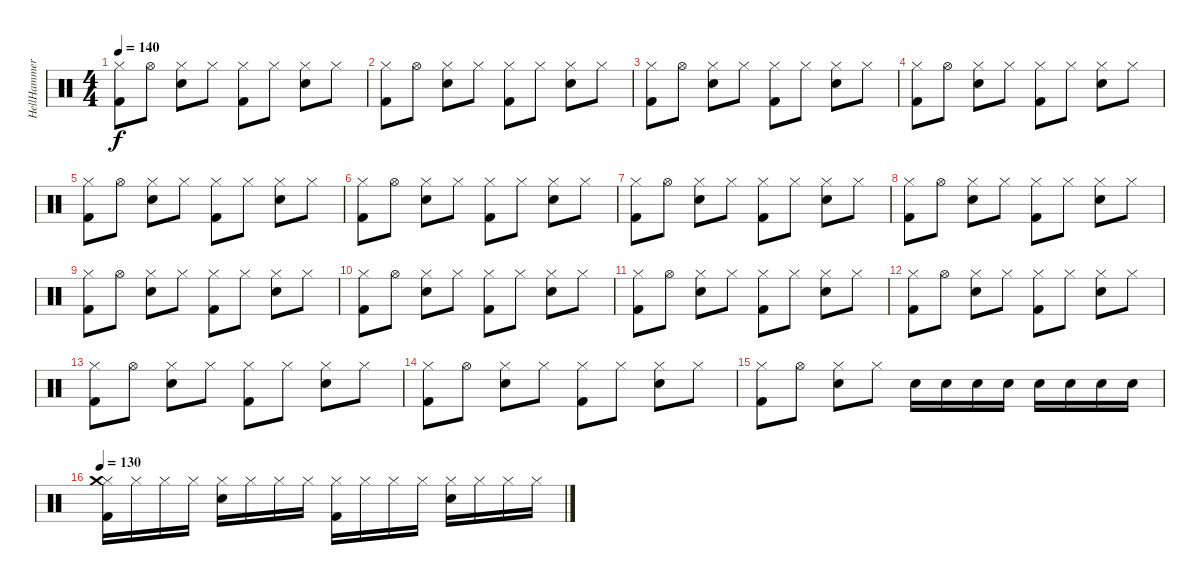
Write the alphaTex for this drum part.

\track ("HellHammer - Drums" "HellHammer") {instrument percussion}
\staff {score}
\articulation defaults
\ts (4 4)
\tempo 140
\clef neutral
\ks c
("Hi-Hat (closed)" "Kick (hit) 2").8{dy f} "Hi-Hat (open)".8 ("Hi-Hat (closed)" "Snare (hit) 2").8 "Hi-Hat (closed)".8 ("Hi-Hat (closed)" "Kick (hit) 2").8 "Hi-Hat (closed)".8 ("Hi-Hat (closed)" "Snare (hit) 2").8 "Hi-Hat (closed)".8 |
("Hi-Hat (closed)" "Kick (hit) 2").8 "Hi-Hat (open)".8 ("Hi-Hat (closed)" "Snare (hit) 2").8 "Hi-Hat (closed)".8 ("Hi-Hat (closed)" "Kick (hit) 2").8 "Hi-Hat (closed)".8 ("Hi-Hat (closed)" "Snare (hit) 2").8 "Hi-Hat (closed)".8 |
("Hi-Hat (closed)" "Kick (hit) 2").8 "Hi-Hat (open)".8 ("Hi-Hat (closed)" "Snare (hit) 2").8 "Hi-Hat (closed)".8 ("Hi-Hat (closed)" "Kick (hit) 2").8 "Hi-Hat (closed)".8 ("Hi-Hat (closed)" "Snare (hit) 2").8 "Hi-Hat (closed)".8 |
("Hi-Hat (closed)" "Kick (hit) 2").8 "Hi-Hat (open)".8 ("Hi-Hat (closed)" "Snare (hit) 2").8 "Hi-Hat (closed)".8 ("Hi-Hat (closed)" "Kick (hit) 2").8 "Hi-Hat (closed)".8 ("Hi-Hat (closed)" "Snare (hit) 2").8 "Hi-Hat (closed)".8 |
("Hi-Hat (closed)" "Kick (hit) 2").8 "Hi-Hat (open)".8 ("Hi-Hat (closed)" "Snare (hit) 2").8 "Hi-Hat (closed)".8 ("Hi-Hat (closed)" "Kick (hit) 2").8 "Hi-Hat (closed)".8 ("Hi-Hat (closed)" "Snare (hit) 2").8 "Hi-Hat (closed)".8 |
("Hi-Hat (closed)" "Kick (hit) 2").8 "Hi-Hat (open)".8 ("Hi-Hat (closed)" "Snare (hit) 2").8 "Hi-Hat (closed)".8 ("Hi-Hat (closed)" "Kick (hit) 2").8 "Hi-Hat (closed)".8 ("Hi-Hat (closed)" "Snare (hit) 2").8 "Hi-Hat (closed)".8 |
("Hi-Hat (closed)" "Kick (hit) 2").8 "Hi-Hat (open)".8 ("Hi-Hat (closed)" "Snare (hit) 2").8 "Hi-Hat (closed)".8 ("Hi-Hat (closed)" "Kick (hit) 2").8 "Hi-Hat (closed)".8 ("Hi-Hat (closed)" "Snare (hit) 2").8 "Hi-Hat (closed)".8 |
("Hi-Hat (closed)" "Kick (hit) 2").8 "Hi-Hat (open)".8 ("Hi-Hat (closed)" "Snare (hit) 2").8 "Hi-Hat (closed)".8 ("Hi-Hat (closed)" "Kick (hit) 2").8 "Hi-Hat (closed)".8 ("Hi-Hat (closed)" "Snare (hit) 2").8 "Hi-Hat (closed)".8 |
("Hi-Hat (closed)" "Kick (hit) 2").8 "Hi-Hat (open)".8 ("Hi-Hat (closed)" "Snare (hit) 2").8 "Hi-Hat (closed)".8 ("Hi-Hat (closed)" "Kick (hit) 2").8 "Hi-Hat (closed)".8 ("Hi-Hat (closed)" "Snare (hit) 2").8 "Hi-Hat (closed)".8 |
("Hi-Hat (closed)" "Kick (hit) 2").8 "Hi-Hat (open)".8 ("Hi-Hat (closed)" "Snare (hit) 2").8 "Hi-Hat (closed)".8 ("Hi-Hat (closed)" "Kick (hit) 2").8 "Hi-Hat (closed)".8 ("Hi-Hat (closed)" "Snare (hit) 2").8 "Hi-Hat (closed)".8 |
("Hi-Hat (closed)" "Kick (hit) 2").8 "Hi-Hat (open)".8 ("Hi-Hat (closed)" "Snare (hit) 2").8 "Hi-Hat (closed)".8 ("Hi-Hat (closed)" "Kick (hit) 2").8 "Hi-Hat (closed)".8 ("Hi-Hat (closed)" "Snare (hit) 2").8 "Hi-Hat (closed)".8 |
("Hi-Hat (closed)" "Kick (hit) 2").8 "Hi-Hat (open)".8 ("Hi-Hat (closed)" "Snare (hit) 2").8 "Hi-Hat (closed)".8 ("Hi-Hat (closed)" "Kick (hit) 2").8 "Hi-Hat (closed)".8 ("Hi-Hat (closed)" "Snare (hit) 2").8 "Hi-Hat (closed)".8 |
("Hi-Hat (closed)" "Kick (hit) 2").8 "Hi-Hat (open)".8 ("Hi-Hat (closed)" "Snare (hit) 2").8 "Hi-Hat (closed)".8 ("Hi-Hat (closed)" "Kick (hit) 2").8 "Hi-Hat (closed)".8 ("Hi-Hat (closed)" "Snare (hit) 2").8 "Hi-Hat (closed)".8 |
("Hi-Hat (closed)" "Kick (hit) 2").8 "Hi-Hat (open)".8 ("Hi-Hat (closed)" "Snare (hit) 2").8 "Hi-Hat (closed)".8 ("Hi-Hat (closed)" "Kick (hit) 2").8 "Hi-Hat (closed)".8 ("Hi-Hat (closed)" "Snare (hit) 2").8 "Hi-Hat (closed)".8 |
("Hi-Hat (closed)" "Kick (hit) 2").8 "Hi-Hat (open)".8 ("Hi-Hat (closed)" "Snare (hit) 2").8 "Hi-Hat (closed)".8 "Snare (hit) 2".16 "Snare (hit) 2".16 "Snare (hit) 2".16 "Snare (hit) 2".16 "Snare (hit) 2".16 "Snare (hit) 2".16 "Snare (hit) 2".16 "Snare (hit) 2".16 |
\tempo 130
("Kick (hit) 2" "Hi-Hat (closed)" "Crash medium (hit)").16 "Hi-Hat (closed)".16 "Hi-Hat (closed)".16 "Hi-Hat (closed)".16 ("Hi-Hat (closed)" "Snare (hit) 2").16 "Hi-Hat (closed)".16 "Hi-Hat (closed)".16 "Hi-Hat (closed)".16 ("Hi-Hat (closed)" "Kick (hit) 2").16 "Hi-Hat (closed)".16 "Hi-Hat (closed)".16 "Hi-Hat (closed)".16 ("Hi-Hat (closed)" "Snare (hit) 2").16 "Hi-Hat (closed)".16 "Hi-Hat (closed)".16 "Hi-Hat (closed)".16
